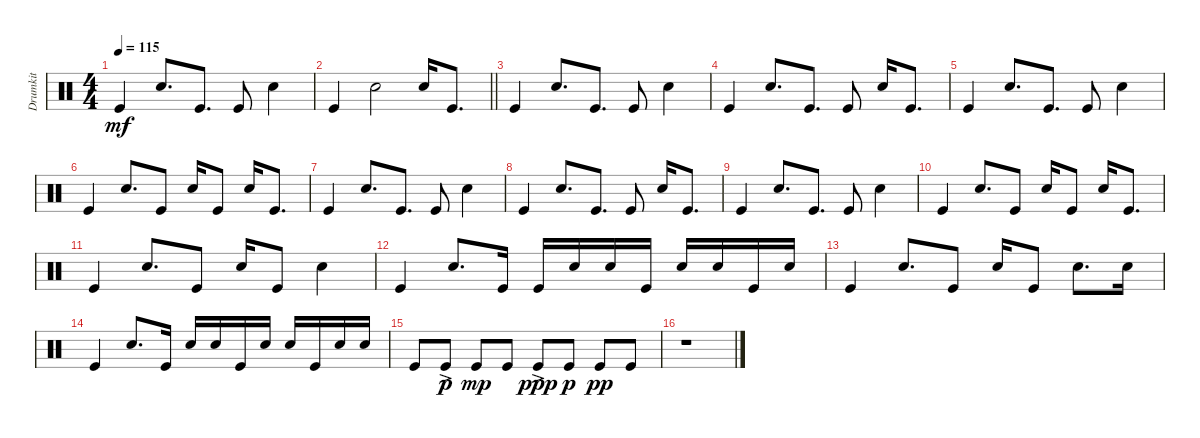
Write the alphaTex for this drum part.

\track ("Drumkit" "Drumkit") {instrument percussion}
\staff {score}
\articulation defaults
\ts (4 4)
\tempo 115
\clef neutral
\ks c "Kick (hit)".4{dy mf} "Snare (hit) 2".8{d} "Kick (hit)".8{d} "Kick (hit)".8 "Snare (hit) 2".4
|
\barLineRight lightlight "Kick (hit)".4 "Snare (hit) 2".2 "Snare (hit) 2".16 "Kick (hit)".8{d}
|
"Kick (hit)".4 "Snare (hit) 2".8{d} "Kick (hit)".8{d} "Kick (hit)".8 "Snare (hit) 2".4 |
"Kick (hit)".4 "Snare (hit) 2".8{d} "Kick (hit)".8{d} "Kick (hit)".8 "Snare (hit) 2".16 "Kick (hit)".8{d} |
"Kick (hit)".4 "Snare (hit) 2".8{d} "Kick (hit)".8{d} "Kick (hit)".8 "Snare (hit) 2".4 |
"Kick (hit)".4 "Snare (hit) 2".8{d} "Kick (hit)".8 "Snare (hit) 2".16 "Kick (hit)".8 "Snare (hit) 2".16 "Kick (hit)".8{d} |
"Kick (hit)".4 "Snare (hit) 2".8{d} "Kick (hit)".8{d} "Kick (hit)".8 "Snare (hit) 2".4 |
"Kick (hit)".4 "Snare (hit) 2".8{d} "Kick (hit)".8{d} "Kick (hit)".8 "Snare (hit) 2".16 "Kick (hit)".8{d} |
"Kick (hit)".4 "Snare (hit) 2".8{d} "Kick (hit)".8{d} "Kick (hit)".8 "Snare (hit) 2".4 |
"Kick (hit)".4 "Snare (hit) 2".8{d} "Kick (hit)".8 "Snare (hit) 2".16 "Kick (hit)".8 "Snare (hit) 2".16 "Kick (hit)".8{d} |
"Kick (hit)".4 "Snare (hit) 2".8{d} "Kick (hit)".8 "Snare (hit) 2".16 "Kick (hit)".8 "Snare (hit) 2".4 |
"Kick (hit)".4 "Snare (hit) 2".8{d} "Kick (hit)".16 "Kick (hit)".16 "Snare (hit) 2".16 "Snare (hit) 2".16 "Kick (hit)".16 "Snare (hit) 2".16 "Snare (hit) 2".16 "Kick (hit)".16 "Snare (hit) 2".16 |
"Kick (hit)".4 "Snare (hit) 2".8{d} "Kick (hit)".8 "Snare (hit) 2".16 "Kick (hit)".8 "Snare (hit) 2".8{d} "Snare (hit) 2".16 |
"Kick (hit)".4 "Snare (hit) 2".8{d} "Kick (hit)".16 "Snare (hit) 2".16 "Snare (hit) 2".16 "Kick (hit)".16 "Snare (hit) 2".16 "Snare (hit) 2".16 "Kick (hit)".16 "Snare (hit) 2".16 "Snare (hit) 2".16 |
"Kick (hit)".8 "Kick (hit)"{ac}.8{dy p} "Kick (hit)".8{dy mp} "Kick (hit)".8 "Kick (hit)"{ac}.8{dy ppp} "Kick (hit)".8{dy p} "Kick (hit)".8{dy pp} "Kick (hit)".8 |
r.1
